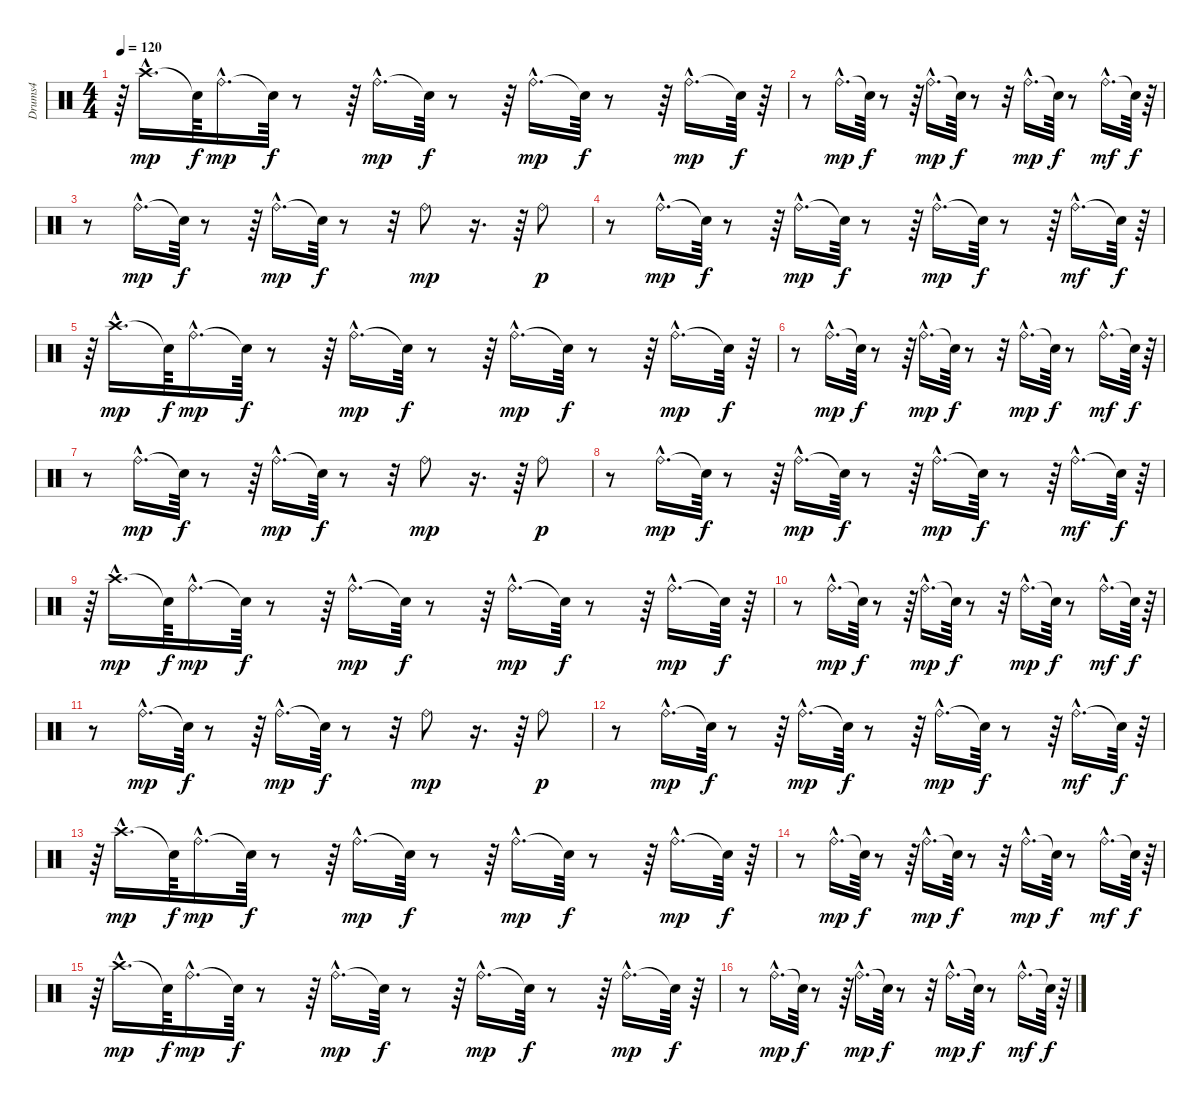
\track ("Drums4" "Drums4") {instrument percussion}
\staff {score}
\articulation defaults
\ts (4 4)
\tempo 120
\clef neutral
\ks c
r.64{dy f} "Crash high (hit)"{hac}.16{d dy mp} "Snare (hit)"{t}.64{dy f} "Ride (bell)"{hac}.16{d dy mp} "Snare (hit)"{t}.64{dy f} r.8 r.64 "Ride (bell)"{hac}.16{d dy mp} "Snare (hit)"{t}.64{dy f} r.8 r.64 "Ride (bell)"{hac}.16{d dy mp} "Snare (hit)"{t}.64{dy f} r.8 r.64 "Ride (bell)"{hac}.16{d dy mp} "Snare (hit)"{t}.64{dy f} r.64 |
r.8 "Ride (bell)"{hac}.16{d dy mp} "Snare (hit)"{t}.64{dy f} r.8 r.64 "Ride (bell)"{hac}.16{d dy mp} "Snare (hit)"{t}.64{dy f} r.8 r.32 "Ride (bell)"{hac}.16{d dy mp} "Snare (hit)"{t}.64{dy f} r.8 "Ride (bell)"{hac}.16{d dy mf} "Snare (hit)"{t}.64{dy f} r.64 |
r.8 "Ride (bell)"{hac}.16{d dy mp} "Snare (hit)"{t}.64{dy f} r.8 r.64 "Ride (bell)"{hac}.16{d dy mp} "Snare (hit)"{t}.64{dy f} r.8 r.32 "Ride (bell)".8{dy mp} r.16{d} r.64 "Ride (bell)".8{dy p} |
r.8 "Ride (bell)"{hac}.16{d dy mp} "Snare (hit)"{t}.64{dy f} r.8 r.64 "Ride (bell)"{hac}.16{d dy mp} "Snare (hit)"{t}.64{dy f} r.8 r.64 "Ride (bell)"{hac}.16{d dy mp} "Snare (hit)"{t}.64{dy f} r.8 r.64 "Ride (bell)"{hac}.16{d dy mf} "Snare (hit)"{t}.64{dy f} r.64 |
r.64 "Crash high (hit)"{hac}.16{d dy mp} "Snare (hit)"{t}.64{dy f} "Ride (bell)"{hac}.16{d dy mp} "Snare (hit)"{t}.64{dy f} r.8 r.64 "Ride (bell)"{hac}.16{d dy mp} "Snare (hit)"{t}.64{dy f} r.8 r.64 "Ride (bell)"{hac}.16{d dy mp} "Snare (hit)"{t}.64{dy f} r.8 r.64 "Ride (bell)"{hac}.16{d dy mp} "Snare (hit)"{t}.64{dy f} r.64 |
r.8 "Ride (bell)"{hac}.16{d dy mp} "Snare (hit)"{t}.64{dy f} r.8 r.64 "Ride (bell)"{hac}.16{d dy mp} "Snare (hit)"{t}.64{dy f} r.8 r.32 "Ride (bell)"{hac}.16{d dy mp} "Snare (hit)"{t}.64{dy f} r.8 "Ride (bell)"{hac}.16{d dy mf} "Snare (hit)"{t}.64{dy f} r.64 |
r.8 "Ride (bell)"{hac}.16{d dy mp} "Snare (hit)"{t}.64{dy f} r.8 r.64 "Ride (bell)"{hac}.16{d dy mp} "Snare (hit)"{t}.64{dy f} r.8 r.32 "Ride (bell)".8{dy mp} r.16{d} r.64 "Ride (bell)".8{dy p} |
r.8 "Ride (bell)"{hac}.16{d dy mp} "Snare (hit)"{t}.64{dy f} r.8 r.64 "Ride (bell)"{hac}.16{d dy mp} "Snare (hit)"{t}.64{dy f} r.8 r.64 "Ride (bell)"{hac}.16{d dy mp} "Snare (hit)"{t}.64{dy f} r.8 r.64 "Ride (bell)"{hac}.16{d dy mf} "Snare (hit)"{t}.64{dy f} r.64 |
r.64 "Crash high (hit)"{hac}.16{d dy mp} "Snare (hit)"{t}.64{dy f} "Ride (bell)"{hac}.16{d dy mp} "Snare (hit)"{t}.64{dy f} r.8 r.64 "Ride (bell)"{hac}.16{d dy mp} "Snare (hit)"{t}.64{dy f} r.8 r.64 "Ride (bell)"{hac}.16{d dy mp} "Snare (hit)"{t}.64{dy f} r.8 r.64 "Ride (bell)"{hac}.16{d dy mp} "Snare (hit)"{t}.64{dy f} r.64 |
r.8 "Ride (bell)"{hac}.16{d dy mp} "Snare (hit)"{t}.64{dy f} r.8 r.64 "Ride (bell)"{hac}.16{d dy mp} "Snare (hit)"{t}.64{dy f} r.8 r.32 "Ride (bell)"{hac}.16{d dy mp} "Snare (hit)"{t}.64{dy f} r.8 "Ride (bell)"{hac}.16{d dy mf} "Snare (hit)"{t}.64{dy f} r.64 |
r.8 "Ride (bell)"{hac}.16{d dy mp} "Snare (hit)"{t}.64{dy f} r.8 r.64 "Ride (bell)"{hac}.16{d dy mp} "Snare (hit)"{t}.64{dy f} r.8 r.32 "Ride (bell)".8{dy mp} r.16{d} r.64 "Ride (bell)".8{dy p} |
r.8 "Ride (bell)"{hac}.16{d dy mp} "Snare (hit)"{t}.64{dy f} r.8 r.64 "Ride (bell)"{hac}.16{d dy mp} "Snare (hit)"{t}.64{dy f} r.8 r.64 "Ride (bell)"{hac}.16{d dy mp} "Snare (hit)"{t}.64{dy f} r.8 r.64 "Ride (bell)"{hac}.16{d dy mf} "Snare (hit)"{t}.64{dy f} r.64 |
r.64 "Crash high (hit)"{hac}.16{d dy mp} "Snare (hit)"{t}.64{dy f} "Ride (bell)"{hac}.16{d dy mp} "Snare (hit)"{t}.64{dy f} r.8 r.64 "Ride (bell)"{hac}.16{d dy mp} "Snare (hit)"{t}.64{dy f} r.8 r.64 "Ride (bell)"{hac}.16{d dy mp} "Snare (hit)"{t}.64{dy f} r.8 r.64 "Ride (bell)"{hac}.16{d dy mp} "Snare (hit)"{t}.64{dy f} r.64 |
r.8 "Ride (bell)"{hac}.16{d dy mp} "Snare (hit)"{t}.64{dy f} r.8 r.64 "Ride (bell)"{hac}.16{d dy mp} "Snare (hit)"{t}.64{dy f} r.8 r.32 "Ride (bell)"{hac}.16{d dy mp} "Snare (hit)"{t}.64{dy f} r.8 "Ride (bell)"{hac}.16{d dy mf} "Snare (hit)"{t}.64{dy f} r.64 |
r.64 "Crash high (hit)"{hac}.16{d dy mp} "Snare (hit)"{t}.64{dy f} "Ride (bell)"{hac}.16{d dy mp} "Snare (hit)"{t}.64{dy f} r.8 r.64 "Ride (bell)"{hac}.16{d dy mp} "Snare (hit)"{t}.64{dy f} r.8 r.64 "Ride (bell)"{hac}.16{d dy mp} "Snare (hit)"{t}.64{dy f} r.8 r.64 "Ride (bell)"{hac}.16{d dy mp} "Snare (hit)"{t}.64{dy f} r.64 |
r.8 "Ride (bell)"{hac}.16{d dy mp} "Snare (hit)"{t}.64{dy f} r.8 r.64 "Ride (bell)"{hac}.16{d dy mp} "Snare (hit)"{t}.64{dy f} r.8 r.32 "Ride (bell)"{hac}.16{d dy mp} "Snare (hit)"{t}.64{dy f} r.8 "Ride (bell)"{hac}.16{d dy mf} "Snare (hit)"{t}.64{dy f} r.64
